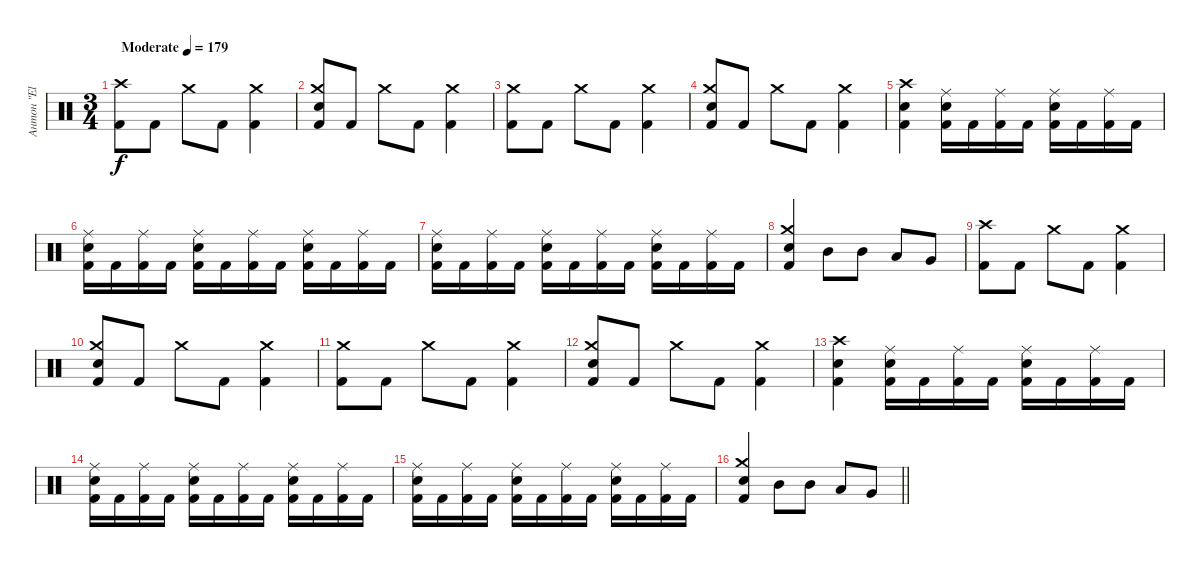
\track ("Антон \"El Bastardo\" Смольянин" "Антон \"El ") {instrument percussion}
\staff {score}
\articulation defaults
\ts (3 4)
\tempo (179 "Moderate")
\clef neutral
\ks c
("Crash high (hit)" "Kick (hit) 2").8{dy f} "Kick (hit) 2".8 "Crash medium (hit)".8 "Kick (hit) 2".8 ("Crash medium (hit)" "Kick (hit) 2").4 |
("Crash medium (hit)" "Electric Snare (hit)" "Kick (hit) 2").8 "Kick (hit) 2".8 "Crash medium (hit)".8 "Kick (hit) 2".8 ("Crash medium (hit)" "Kick (hit) 2").4 |
("Crash medium (hit)" "Kick (hit) 2").8 "Kick (hit) 2".8 "Crash medium (hit)".8 "Kick (hit) 2".8 ("Crash medium (hit)" "Kick (hit) 2").4 |
("Crash medium (hit)" "Electric Snare (hit)" "Kick (hit) 2").8 "Kick (hit) 2".8 "Crash medium (hit)".8 "Kick (hit) 2".8 ("Crash medium (hit)" "Kick (hit) 2").4 |
("Crash high (hit)" "Electric Snare (hit)" "Kick (hit) 2").4 ("Ride (middle)" "Electric Snare (hit)" "Kick (hit) 2").16 "Kick (hit) 2".16 ("Ride (middle)" "Kick (hit) 2").16 "Kick (hit) 2".16 ("Ride (middle)" "Electric Snare (hit)" "Kick (hit) 2").16 "Kick (hit) 2".16 ("Ride (middle)" "Kick (hit) 2").16 "Kick (hit) 2".16 |
("Ride (middle)" "Electric Snare (hit)" "Kick (hit) 2").16 "Kick (hit) 2".16 ("Ride (middle)" "Kick (hit) 2").16 "Kick (hit) 2".16 ("Ride (middle)" "Electric Snare (hit)" "Kick (hit) 2").16 "Kick (hit) 2".16 ("Ride (middle)" "Kick (hit) 2").16 "Kick (hit) 2".16 ("Ride (middle)" "Electric Snare (hit)" "Kick (hit) 2").16 "Kick (hit) 2".16 ("Ride (middle)" "Kick (hit) 2").16 "Kick (hit) 2".16 |
("Ride (middle)" "Electric Snare (hit)" "Kick (hit) 2").16 "Kick (hit) 2".16 ("Ride (middle)" "Kick (hit) 2").16 "Kick (hit) 2".16 ("Ride (middle)" "Electric Snare (hit)" "Kick (hit) 2").16 "Kick (hit) 2".16 ("Ride (middle)" "Kick (hit) 2").16 "Kick (hit) 2".16 ("Ride (middle)" "Electric Snare (hit)" "Kick (hit) 2").16 "Kick (hit) 2".16 ("Ride (middle)" "Kick (hit) 2").16 "Kick (hit) 2".16 |
("Crash medium (hit)" "Electric Snare (hit)" "Kick (hit) 2").4 "Mid Tom (hit)".8 "Mid Tom (hit)".8 "Low Tom (hit)".8 "Very Low Tom (hit)".8 |
("Crash high (hit)" "Kick (hit) 2").8 "Kick (hit) 2".8 "Crash medium (hit)".8 "Kick (hit) 2".8 ("Crash medium (hit)" "Kick (hit) 2").4 |
("Crash medium (hit)" "Electric Snare (hit)" "Kick (hit) 2").8 "Kick (hit) 2".8 "Crash medium (hit)".8 "Kick (hit) 2".8 ("Crash medium (hit)" "Kick (hit) 2").4 |
("Crash medium (hit)" "Kick (hit) 2").8 "Kick (hit) 2".8 "Crash medium (hit)".8 "Kick (hit) 2".8 ("Crash medium (hit)" "Kick (hit) 2").4 |
("Crash medium (hit)" "Electric Snare (hit)" "Kick (hit) 2").8 "Kick (hit) 2".8 "Crash medium (hit)".8 "Kick (hit) 2".8 ("Crash medium (hit)" "Kick (hit) 2").4 |
("Crash high (hit)" "Electric Snare (hit)" "Kick (hit) 2").4 ("Ride (middle)" "Electric Snare (hit)" "Kick (hit) 2").16 "Kick (hit) 2".16 ("Ride (middle)" "Kick (hit) 2").16 "Kick (hit) 2".16 ("Ride (middle)" "Electric Snare (hit)" "Kick (hit) 2").16 "Kick (hit) 2".16 ("Ride (middle)" "Kick (hit) 2").16 "Kick (hit) 2".16 |
("Ride (middle)" "Electric Snare (hit)" "Kick (hit) 2").16 "Kick (hit) 2".16 ("Ride (middle)" "Kick (hit) 2").16 "Kick (hit) 2".16 ("Ride (middle)" "Electric Snare (hit)" "Kick (hit) 2").16 "Kick (hit) 2".16 ("Ride (middle)" "Kick (hit) 2").16 "Kick (hit) 2".16 ("Ride (middle)" "Electric Snare (hit)" "Kick (hit) 2").16 "Kick (hit) 2".16 ("Ride (middle)" "Kick (hit) 2").16 "Kick (hit) 2".16 |
("Ride (middle)" "Electric Snare (hit)" "Kick (hit) 2").16 "Kick (hit) 2".16 ("Ride (middle)" "Kick (hit) 2").16 "Kick (hit) 2".16 ("Ride (middle)" "Electric Snare (hit)" "Kick (hit) 2").16 "Kick (hit) 2".16 ("Ride (middle)" "Kick (hit) 2").16 "Kick (hit) 2".16 ("Ride (middle)" "Electric Snare (hit)" "Kick (hit) 2").16 "Kick (hit) 2".16 ("Ride (middle)" "Kick (hit) 2").16 "Kick (hit) 2".16 |
\barLineRight lightlight
("Crash medium (hit)" "Electric Snare (hit)" "Kick (hit) 2").4 "Mid Tom (hit)".8 "Mid Tom (hit)".8 "Low Tom (hit)".8 "Very Low Tom (hit)".8
